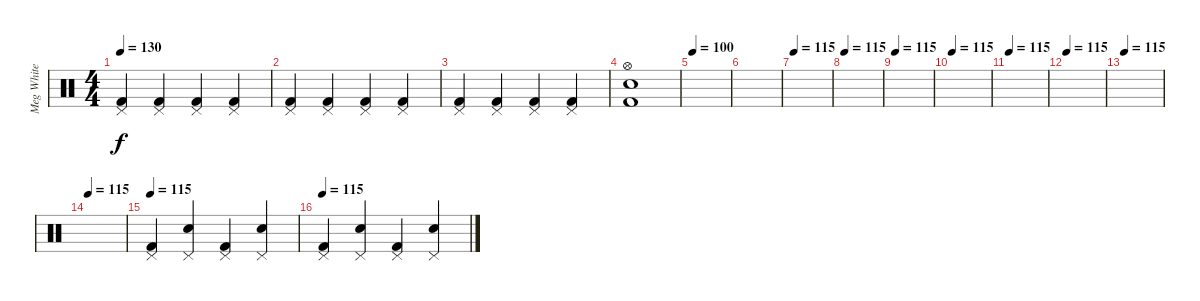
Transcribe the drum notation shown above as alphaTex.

\track ("Meg White" "Meg White") {instrument percussion}
\staff {score}
\articulation defaults
\ts (4 4)
\tempo 130
\clef neutral
\ks c
("Kick (hit) 2" "Pedal Hi-Hat (hit)").4{dy f} ("Kick (hit) 2" "Pedal Hi-Hat (hit)").4 ("Kick (hit) 2" "Pedal Hi-Hat (hit)").4 ("Kick (hit) 2" "Pedal Hi-Hat (hit)").4 |
("Kick (hit) 2" "Pedal Hi-Hat (hit)").4 ("Kick (hit) 2" "Pedal Hi-Hat (hit)").4 ("Kick (hit) 2" "Pedal Hi-Hat (hit)").4 ("Kick (hit) 2" "Pedal Hi-Hat (hit)").4 |
("Kick (hit) 2" "Pedal Hi-Hat (hit)").4 ("Kick (hit) 2" "Pedal Hi-Hat (hit)").4 ("Kick (hit) 2" "Pedal Hi-Hat (hit)").4 ("Kick (hit) 2" "Pedal Hi-Hat (hit)").4 |
("Kick (hit) 2" "Electric Snare (hit)" "Hi-Hat (open)").1 |
\tempo 100
|
|
\tempo 115
|
\tempo 115
|
\tempo 115
|
\tempo 115
|
\tempo 115
|
\tempo 115
|
\tempo 115
|
\tempo 115
|
\tempo 115
("Kick (hit) 2" "Pedal Hi-Hat (hit)").4 ("Electric Snare (hit)" "Pedal Hi-Hat (hit)").4 ("Kick (hit) 2" "Pedal Hi-Hat (hit)").4 ("Electric Snare (hit)" "Pedal Hi-Hat (hit)").4 |
\tempo 115
("Kick (hit) 2" "Pedal Hi-Hat (hit)").4 ("Electric Snare (hit)" "Pedal Hi-Hat (hit)").4 ("Kick (hit) 2" "Pedal Hi-Hat (hit)").4 ("Electric Snare (hit)" "Pedal Hi-Hat (hit)").4
